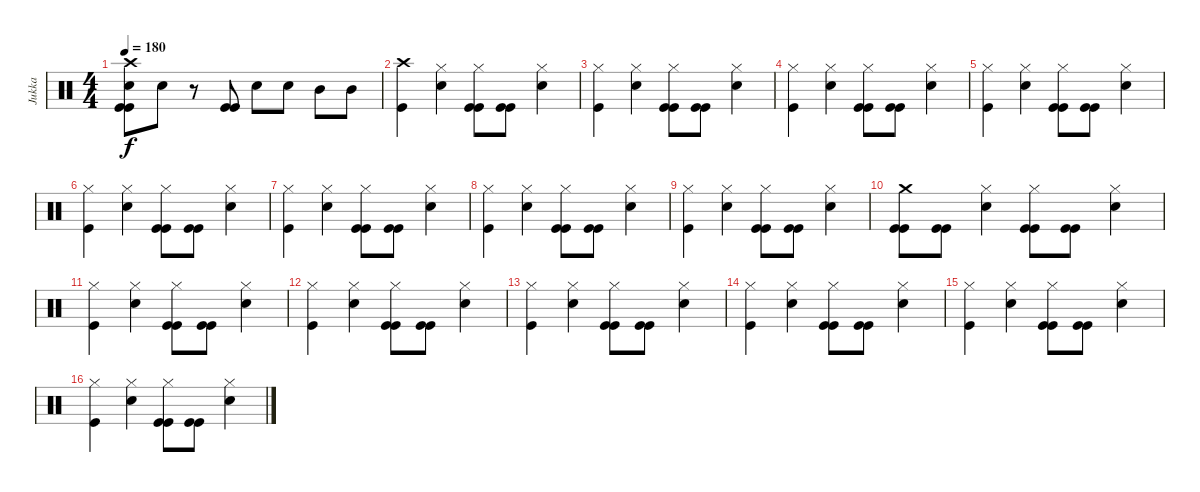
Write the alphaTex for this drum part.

\track ("Jukka" "Jukka") {instrument percussion}
\staff {score}
\articulation defaults
\ts (4 4)
\tempo 180
\clef neutral
\ks c
("Crash high (hit)" "Snare (hit) 2" "Kick (hit)" "Kick (hit)").8{dy f} "Snare (hit) 2".8 r.8 ("Kick (hit)" "Kick (hit)").8 "Snare (hit) 2".8 "Snare (hit) 2".8 "Mid Tom (hit)".8 "Mid Tom (hit)".8 |
("Crash high (hit)" "Kick (hit)").4 ("Hi-Hat (closed)" "Snare (hit) 2").4 ("Hi-Hat (closed)" "Kick (hit)" "Kick (hit)").8 ("Kick (hit)" "Kick (hit)").8 ("Hi-Hat (closed)" "Snare (hit) 2").4 |
("Hi-Hat (closed)" "Kick (hit)").4 ("Hi-Hat (closed)" "Snare (hit) 2").4 ("Hi-Hat (closed)" "Kick (hit)" "Kick (hit)").8 ("Kick (hit)" "Kick (hit)").8 ("Hi-Hat (closed)" "Snare (hit) 2").4 |
("Hi-Hat (closed)" "Kick (hit)").4 ("Hi-Hat (closed)" "Snare (hit) 2").4 ("Hi-Hat (closed)" "Kick (hit)" "Kick (hit)").8 ("Kick (hit)" "Kick (hit)").8 ("Hi-Hat (closed)" "Snare (hit) 2").4 |
("Hi-Hat (closed)" "Kick (hit)").4 ("Hi-Hat (closed)" "Snare (hit) 2").4 ("Hi-Hat (closed)" "Kick (hit)" "Kick (hit)").8 ("Kick (hit)" "Kick (hit)").8 ("Hi-Hat (closed)" "Snare (hit) 2").4 |
("Hi-Hat (closed)" "Kick (hit)").4 ("Hi-Hat (closed)" "Snare (hit) 2").4 ("Hi-Hat (closed)" "Kick (hit)" "Kick (hit)").8 ("Kick (hit)" "Kick (hit)").8 ("Hi-Hat (closed)" "Snare (hit) 2").4 |
("Hi-Hat (closed)" "Kick (hit)").4 ("Hi-Hat (closed)" "Snare (hit) 2").4 ("Hi-Hat (closed)" "Kick (hit)" "Kick (hit)").8 ("Kick (hit)" "Kick (hit)").8 ("Hi-Hat (closed)" "Snare (hit) 2").4 |
("Hi-Hat (closed)" "Kick (hit)").4 ("Hi-Hat (closed)" "Snare (hit) 2").4 ("Hi-Hat (closed)" "Kick (hit)" "Kick (hit)").8 ("Kick (hit)" "Kick (hit)").8 ("Hi-Hat (closed)" "Snare (hit) 2").4 |
("Hi-Hat (closed)" "Kick (hit)").4 ("Hi-Hat (closed)" "Snare (hit) 2").4 ("Hi-Hat (closed)" "Kick (hit)" "Kick (hit)").8 ("Kick (hit)" "Kick (hit)").8 ("Hi-Hat (closed)" "Snare (hit) 2").4 |
("Crash medium (hit)" "Kick (hit)" "Kick (hit)").8 ("Kick (hit)" "Kick (hit)").8 ("Hi-Hat (closed)" "Snare (hit) 2").4 ("Hi-Hat (closed)" "Kick (hit)" "Kick (hit)").8 ("Kick (hit)" "Kick (hit)").8 ("Hi-Hat (closed)" "Snare (hit) 2").4 |
("Hi-Hat (closed)" "Kick (hit)").4 ("Hi-Hat (closed)" "Snare (hit) 2").4 ("Hi-Hat (closed)" "Kick (hit)" "Kick (hit)").8 ("Kick (hit)" "Kick (hit)").8 ("Hi-Hat (closed)" "Snare (hit) 2").4 |
("Hi-Hat (closed)" "Kick (hit)").4 ("Hi-Hat (closed)" "Snare (hit) 2").4 ("Hi-Hat (closed)" "Kick (hit)" "Kick (hit)").8 ("Kick (hit)" "Kick (hit)").8 ("Hi-Hat (closed)" "Snare (hit) 2").4 |
("Hi-Hat (closed)" "Kick (hit)").4 ("Hi-Hat (closed)" "Snare (hit) 2").4 ("Hi-Hat (closed)" "Kick (hit)" "Kick (hit)").8 ("Kick (hit)" "Kick (hit)").8 ("Hi-Hat (closed)" "Snare (hit) 2").4 |
("Hi-Hat (closed)" "Kick (hit)").4 ("Hi-Hat (closed)" "Snare (hit) 2").4 ("Hi-Hat (closed)" "Kick (hit)" "Kick (hit)").8 ("Kick (hit)" "Kick (hit)").8 ("Hi-Hat (closed)" "Snare (hit) 2").4 |
("Hi-Hat (closed)" "Kick (hit)").4 ("Hi-Hat (closed)" "Snare (hit) 2").4 ("Hi-Hat (closed)" "Kick (hit)" "Kick (hit)").8 ("Kick (hit)" "Kick (hit)").8 ("Hi-Hat (closed)" "Snare (hit) 2").4 |
("Hi-Hat (closed)" "Kick (hit)").4 ("Hi-Hat (closed)" "Snare (hit) 2").4 ("Hi-Hat (closed)" "Kick (hit)" "Kick (hit)").8 ("Kick (hit)" "Kick (hit)").8 ("Hi-Hat (closed)" "Snare (hit) 2").4
